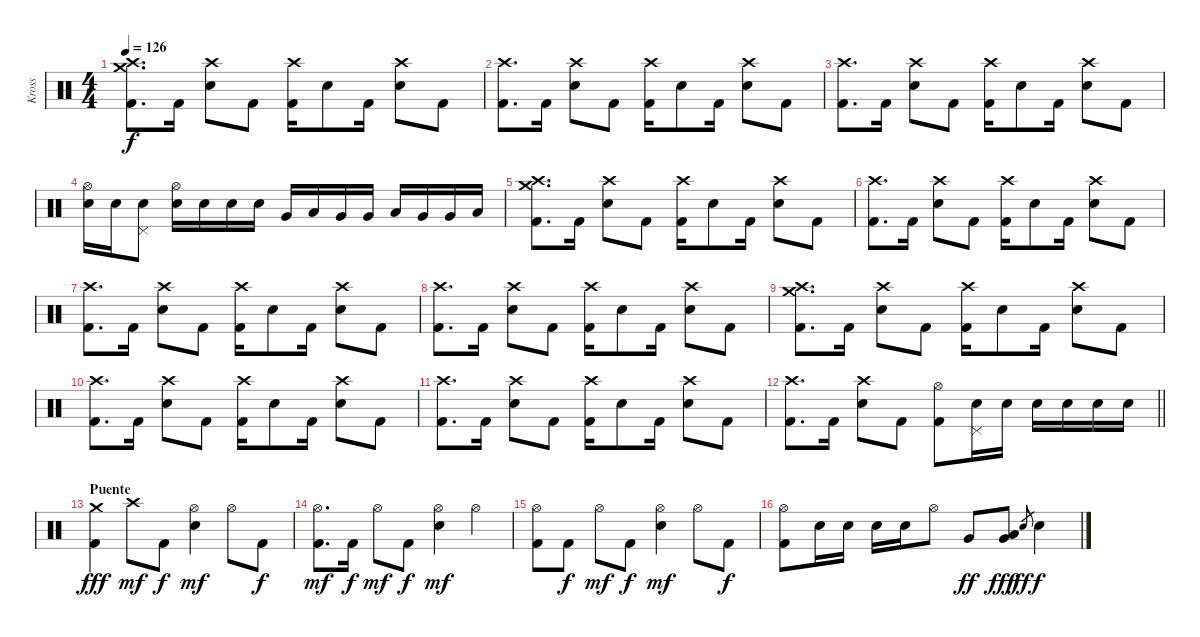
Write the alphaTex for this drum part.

\track ("Kross" "Kross") {instrument percussion}
\staff {score}
\articulation defaults
\ts (4 4)
\tempo 126
\clef neutral
\ks c
("Crash high (hit)" "Crash medium (hit)" "Kick (hit) 2").8{d dy f} "Kick (hit) 2".16 ("Crash high (hit)" "Electric Snare (hit)").8 "Kick (hit) 2".8 ("Crash high (hit)" "Kick (hit) 2").16 "Electric Snare (hit)".8 "Kick (hit) 2".16 ("Crash high (hit)" "Electric Snare (hit)").8 "Kick (hit) 2".8 |
("Crash high (hit)" "Kick (hit) 2").8{d} "Kick (hit) 2".16 ("Crash high (hit)" "Electric Snare (hit)").8 "Kick (hit) 2".8 ("Crash high (hit)" "Kick (hit) 2").16 "Electric Snare (hit)".8 "Kick (hit) 2".16 ("Crash high (hit)" "Electric Snare (hit)").8 "Kick (hit) 2".8 |
("Crash high (hit)" "Kick (hit) 2").8{d} "Kick (hit) 2".16 ("Crash high (hit)" "Electric Snare (hit)").8 "Kick (hit) 2".8 ("Crash high (hit)" "Kick (hit) 2").16 "Electric Snare (hit)".8 "Kick (hit) 2".16 ("Crash high (hit)" "Electric Snare (hit)").8 "Kick (hit) 2".8 |
("Hi-Hat (open)" "Electric Snare (hit)").16 "Electric Snare (hit)".16 ("Pedal Hi-Hat (hit)" "Electric Snare (hit)").8 ("Hi-Hat (open)" "Electric Snare (hit)").16 "Electric Snare (hit)".16 "Electric Snare (hit)".16 "Electric Snare (hit)".16 "Very Low Tom (hit)".16 "Low Tom (hit)".16 "Very Low Tom (hit)".16 "Very Low Tom (hit)".16 "Low Tom (hit)".16 "Very Low Tom (hit)".16 "Very Low Tom (hit)".16 "Low Tom (hit)".16 |
("Crash high (hit)" "Crash medium (hit)" "Kick (hit) 2").8{d} "Kick (hit) 2".16 ("Crash high (hit)" "Electric Snare (hit)").8 "Kick (hit) 2".8 ("Crash high (hit)" "Kick (hit) 2").16 "Electric Snare (hit)".8 "Kick (hit) 2".16 ("Crash high (hit)" "Electric Snare (hit)").8 "Kick (hit) 2".8 |
("Crash high (hit)" "Kick (hit) 2").8{d} "Kick (hit) 2".16 ("Crash high (hit)" "Electric Snare (hit)").8 "Kick (hit) 2".8 ("Crash high (hit)" "Kick (hit) 2").16 "Electric Snare (hit)".8 "Kick (hit) 2".16 ("Crash high (hit)" "Electric Snare (hit)").8 "Kick (hit) 2".8 |
("Crash high (hit)" "Kick (hit) 2").8{d} "Kick (hit) 2".16 ("Crash high (hit)" "Electric Snare (hit)").8 "Kick (hit) 2".8 ("Crash high (hit)" "Kick (hit) 2").16 "Electric Snare (hit)".8 "Kick (hit) 2".16 ("Crash high (hit)" "Electric Snare (hit)").8 "Kick (hit) 2".8 |
("Crash high (hit)" "Kick (hit) 2").8{d} "Kick (hit) 2".16 ("Crash high (hit)" "Electric Snare (hit)").8 "Kick (hit) 2".8 ("Crash high (hit)" "Kick (hit) 2").16 "Electric Snare (hit)".8 "Kick (hit) 2".16 ("Crash high (hit)" "Electric Snare (hit)").8 "Kick (hit) 2".8 |
("Crash high (hit)" "Crash medium (hit)" "Kick (hit) 2").8{d} "Kick (hit) 2".16 ("Crash high (hit)" "Electric Snare (hit)").8 "Kick (hit) 2".8 ("Crash high (hit)" "Kick (hit) 2").16 "Electric Snare (hit)".8 "Kick (hit) 2".16 ("Crash high (hit)" "Electric Snare (hit)").8 "Kick (hit) 2".8 |
("Crash high (hit)" "Kick (hit) 2").8{d} "Kick (hit) 2".16 ("Crash high (hit)" "Electric Snare (hit)").8 "Kick (hit) 2".8 ("Crash high (hit)" "Kick (hit) 2").16 "Electric Snare (hit)".8 "Kick (hit) 2".16 ("Crash high (hit)" "Electric Snare (hit)").8 "Kick (hit) 2".8 |
("Crash high (hit)" "Kick (hit) 2").8{d} "Kick (hit) 2".16 ("Crash high (hit)" "Electric Snare (hit)").8 "Kick (hit) 2".8 ("Crash high (hit)" "Kick (hit) 2").16 "Electric Snare (hit)".8 "Kick (hit) 2".16 ("Crash high (hit)" "Electric Snare (hit)").8 "Kick (hit) 2".8 |
\barLineRight lightlight
("Crash high (hit)" "Kick (hit) 2").8{d} "Kick (hit) 2".16 ("Crash high (hit)" "Electric Snare (hit)").8 "Kick (hit) 2".8 ("Hi-Hat (open)" "Kick (hit) 2").8 ("Pedal Hi-Hat (hit)" "Electric Snare (hit)").16 "Electric Snare (hit)".16 "Electric Snare (hit)".16 "Electric Snare (hit)".16 "Electric Snare (hit)".16 "Electric Snare (hit)".16 |
\section ("" "Puente")
("Crash medium (hit)" "Kick (hit) 2").4{dy fff} "Crash high (hit)".8{dy mf} "Kick (hit) 2".8{dy f} ("Hi-Hat (open)" "Electric Snare (hit)").4{dy mf} "Hi-Hat (open)".8 "Kick (hit) 2".8{dy f} |
("Hi-Hat (open)" "Kick (hit) 2").8{d dy mf} "Kick (hit) 2".16{dy f} "Hi-Hat (open)".8{dy mf} "Kick (hit) 2".8{dy f} ("Hi-Hat (open)" "Electric Snare (hit)").4{dy mf} "Hi-Hat (open)".4 |
("Hi-Hat (open)" "Kick (hit) 2").8 "Kick (hit) 2".8{dy f} "Hi-Hat (open)".8{dy mf} "Kick (hit) 2".8{dy f} ("Hi-Hat (open)" "Electric Snare (hit)").4{dy mf} "Hi-Hat (open)".8 "Kick (hit) 2".8{dy f} |
("Hi-Hat (open)" "Kick (hit) 2").8 "Electric Snare (hit)".16 "Electric Snare (hit)".16 "Electric Snare (hit)".16 "Electric Snare (hit)".16 "Hi-Hat (open)".8 "Very Low Tom (hit)".8{dy ff} ("Low Tom (hit)" "Very Low Tom (hit)").8{dy fff} "Electric Snare (hit)".8{gr dy ff} "Electric Snare (hit)".4{dy f}
